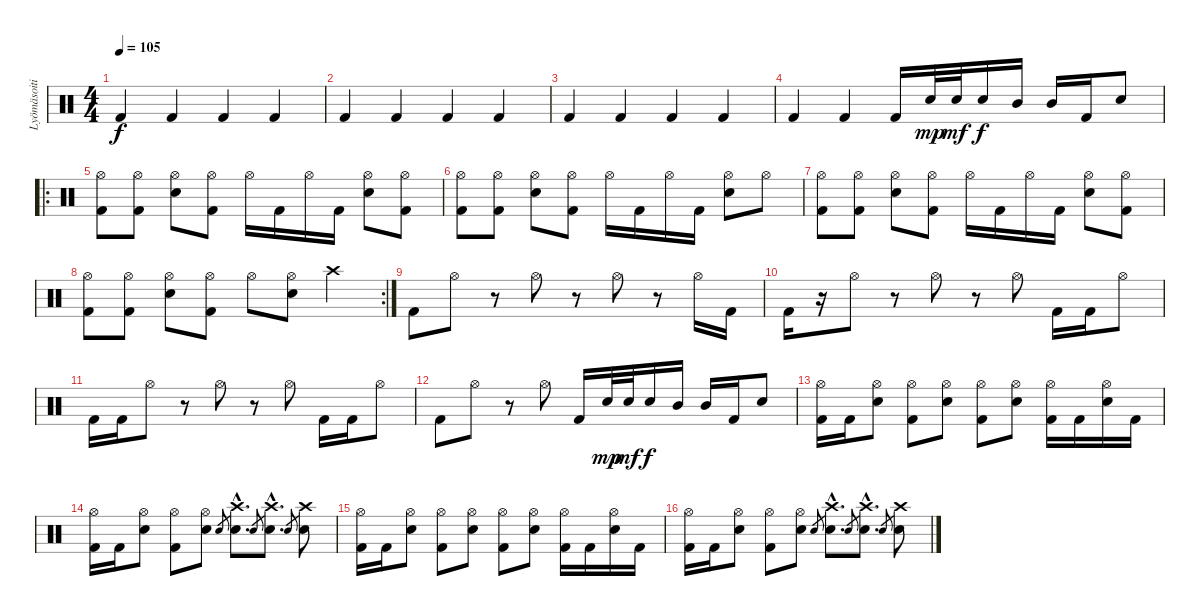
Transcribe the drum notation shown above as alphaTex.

\track ("Lyömäsoitin" "Lyömäsoiti") {instrument percussion}
\staff {score}
\articulation defaults
\ts (4 4)
\tempo 105
\clef neutral
\ks c "Kick (hit) 2".4{dy f} "Kick (hit) 2".4 "Kick (hit) 2".4 "Kick (hit) 2".4
|
"Kick (hit) 2".4 "Kick (hit) 2".4 "Kick (hit) 2".4 "Kick (hit) 2".4 |
"Kick (hit) 2".4 "Kick (hit) 2".4 "Kick (hit) 2".4 "Kick (hit) 2".4 |
"Kick (hit) 2".4 "Kick (hit) 2".4 "Kick (hit) 2".16 "Electric Snare (hit)".32{dy mp} "Electric Snare (hit)".32{dy mf} "Electric Snare (hit)".16{dy f} "Mid Tom (hit)".16 "Mid Tom (hit)".16 "Kick (hit) 2".16 "Electric Snare (hit)".8 |
\ro
("Hi-Hat (open)" "Kick (hit) 2").8 ("Hi-Hat (open)" "Kick (hit) 2").8 ("Hi-Hat (open)" "Electric Snare (hit)").8 ("Hi-Hat (open)" "Kick (hit) 2").8 "Hi-Hat (open)".16 "Kick (hit) 2".16 "Hi-Hat (open)".16 "Kick (hit) 2".16 ("Hi-Hat (open)" "Electric Snare (hit)").8 ("Hi-Hat (open)" "Kick (hit) 2").8 |
("Hi-Hat (open)" "Kick (hit) 2").8 ("Hi-Hat (open)" "Kick (hit) 2").8 ("Hi-Hat (open)" "Electric Snare (hit)").8 ("Hi-Hat (open)" "Kick (hit) 2").8 "Hi-Hat (open)".16 "Kick (hit) 2".16 "Hi-Hat (open)".16 "Kick (hit) 2".16 ("Hi-Hat (open)" "Electric Snare (hit)").8 "Hi-Hat (open)".8 |
("Hi-Hat (open)" "Kick (hit) 2").8 ("Hi-Hat (open)" "Kick (hit) 2").8 ("Hi-Hat (open)" "Electric Snare (hit)").8 ("Hi-Hat (open)" "Kick (hit) 2").8 "Hi-Hat (open)".16 "Kick (hit) 2".16 "Hi-Hat (open)".16 "Kick (hit) 2".16 ("Hi-Hat (open)" "Electric Snare (hit)").8 ("Hi-Hat (open)" "Kick (hit) 2").8 |
\rc 2
("Hi-Hat (open)" "Kick (hit) 2").8 ("Hi-Hat (open)" "Kick (hit) 2").8 ("Hi-Hat (open)" "Electric Snare (hit)").8 ("Hi-Hat (open)" "Kick (hit) 2").8 "Hi-Hat (open)".8 ("Hi-Hat (open)" "Electric Snare (hit)").8 "Crash high (hit)".4 |
"Kick (hit) 2".8 "Hi-Hat (open)".8 r.8 "Hi-Hat (open)".8 r.8 "Hi-Hat (open)".8 r.8 "Hi-Hat (open)".16 "Kick (hit) 2".16 |
"Kick (hit) 2".16 r.16 "Hi-Hat (open)".8 r.8 "Hi-Hat (open)".8 r.8 "Hi-Hat (open)".8 "Kick (hit) 2".16 "Kick (hit) 2".16 "Hi-Hat (open)".8 |
"Kick (hit) 2".16 "Kick (hit) 2".16 "Hi-Hat (open)".8 r.8 "Hi-Hat (open)".8 r.8 "Hi-Hat (open)".8 "Kick (hit) 2".16 "Kick (hit) 2".16 "Hi-Hat (open)".8 |
"Kick (hit) 2".8 "Hi-Hat (open)".8 r.8 "Hi-Hat (open)".8 "Kick (hit) 2".16 "Electric Snare (hit)".32{dy mp} "Electric Snare (hit)".32{dy mf} "Electric Snare (hit)".16{dy f} "Mid Tom (hit)".16 "Mid Tom (hit)".16 "Kick (hit) 2".16 "Electric Snare (hit)".8 |
("Hi-Hat (open)" "Kick (hit) 2").16 "Kick (hit) 2".16 ("Hi-Hat (open)" "Snare (hit) 2").8 ("Hi-Hat (open)" "Kick (hit) 2").8 ("Hi-Hat (open)" "Snare (hit) 2").8 ("Hi-Hat (open)" "Kick (hit) 2").8 ("Hi-Hat (open)" "Snare (hit) 2").8 ("Hi-Hat (open)" "Kick (hit) 2").16 "Kick (hit) 2".16 ("Hi-Hat (open)" "Snare (hit) 2").16 "Kick (hit) 2".16 |
("Hi-Hat (open)" "Kick (hit) 2").16 "Kick (hit) 2".16 ("Hi-Hat (open)" "Snare (hit) 2").8 ("Hi-Hat (open)" "Kick (hit) 2").8 ("Hi-Hat (open)" "Snare (hit) 2").8 "Snare (hit) 2".8{gr} ("Crash high (hit)"{hac} "Snare (hit) 2"{hac}).8{d} "Snare (hit) 2".8{gr} ("Crash high (hit)"{hac} "Snare (hit) 2"{hac}).8{d} "Snare (hit) 2".8{gr} ("Crash high (hit)" "Snare (hit) 2").8 |
("Hi-Hat (open)" "Kick (hit) 2").16 "Kick (hit) 2".16 ("Hi-Hat (open)" "Snare (hit) 2").8 ("Hi-Hat (open)" "Kick (hit) 2").8 ("Hi-Hat (open)" "Snare (hit) 2").8 ("Hi-Hat (open)" "Kick (hit) 2").8 ("Hi-Hat (open)" "Snare (hit) 2").8 ("Hi-Hat (open)" "Kick (hit) 2").16 "Kick (hit) 2".16 ("Hi-Hat (open)" "Snare (hit) 2").16 "Kick (hit) 2".16 |
("Hi-Hat (open)" "Kick (hit) 2").16 "Kick (hit) 2".16 ("Hi-Hat (open)" "Snare (hit) 2").8 ("Hi-Hat (open)" "Kick (hit) 2").8 ("Hi-Hat (open)" "Snare (hit) 2").8 "Snare (hit) 2".8{gr} ("Crash high (hit)"{hac} "Snare (hit) 2"{hac}).8{d} "Snare (hit) 2".8{gr} ("Crash high (hit)"{hac} "Snare (hit) 2"{hac}).8{d} "Snare (hit) 2".8{gr} ("Crash high (hit)" "Snare (hit) 2").8
